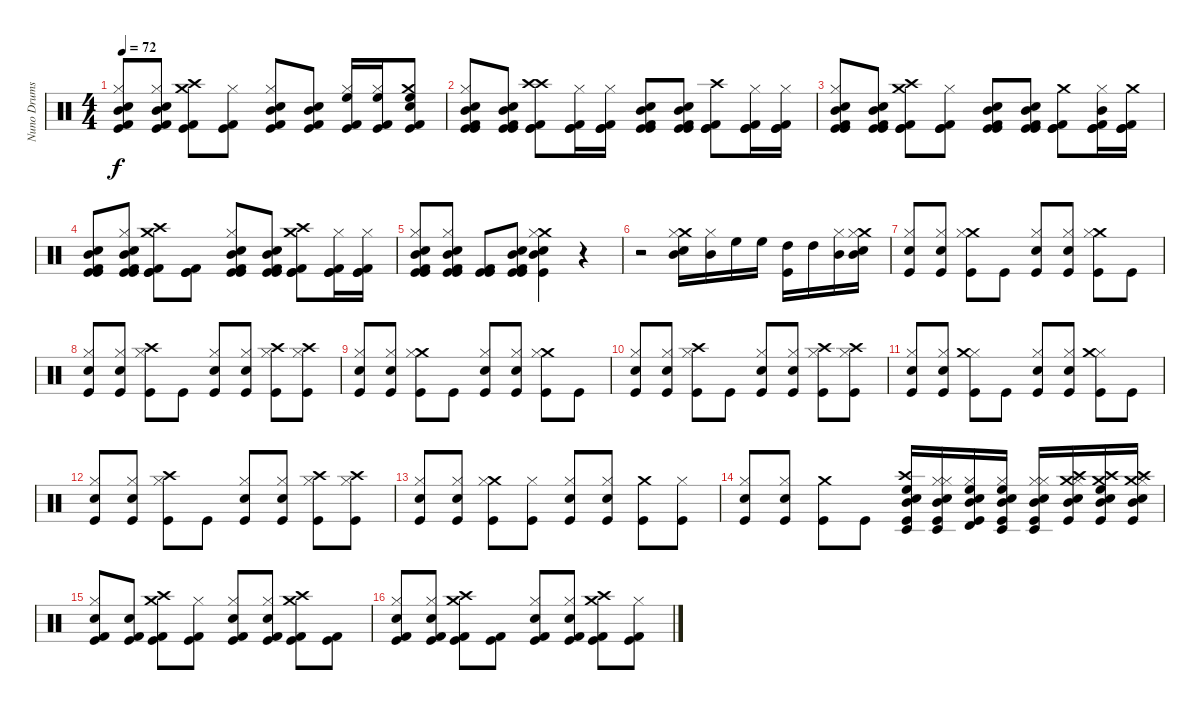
\track ("Nuno Drums" "Nuno Drums") {instrument percussion}
\staff {score}
\articulation defaults
\ts (4 4)
\tempo 72
\clef neutral
\ks c
("Kick (hit)" "Kick (hit) 2" "Hi-Hat (closed)" "Electric Snare (hit)" "Mid Tom (hit)").8{dy f} ("Kick (hit)" "Kick (hit) 2" "Hi-Hat (closed)" "Electric Snare (hit)" "Mid Tom (hit)").8 ("Kick (hit)" "Kick (hit) 2" "Crash high (hit)" "Crash medium (hit)").8 ("Kick (hit)" "Kick (hit) 2" "Hi-Hat (closed)").8 ("Kick (hit)" "Kick (hit) 2" "Hi-Hat (closed)" "Electric Snare (hit)" "Mid Tom (hit)").8 ("Kick (hit)" "Kick (hit) 2" "Electric Snare (hit)" "Mid Tom (hit)").8 ("Kick (hit)" "Kick (hit) 2" "High Floor Tom (hit)" "Hi-Hat (closed)").16 ("Kick (hit)" "Kick (hit) 2" "High Floor Tom (hit)" "Hi-Hat (closed)").16 ("Kick (hit)" "Kick (hit) 2" "High Floor Tom (hit)" "Crash medium (hit)" "Electric Snare (hit)").8 |
("Kick (hit)" "Kick (hit)" "Kick (hit) 2" "Hi-Hat (closed)" "Electric Snare (hit)" "Mid Tom (hit)").8 ("Kick (hit)" "Kick (hit)" "Kick (hit) 2" "Electric Snare (hit)" "Mid Tom (hit)").8 ("Kick (hit)" "Kick (hit)" "Kick (hit) 2" "Crash high (hit)" "Crash high (hit)").8 ("Kick (hit)" "Kick (hit)" "Kick (hit) 2" "Hi-Hat (closed)").16 ("Kick (hit)" "Kick (hit)" "Kick (hit) 2" "Hi-Hat (closed)").16 ("Kick (hit)" "Kick (hit)" "Kick (hit) 2" "Electric Snare (hit)" "Mid Tom (hit)").8 ("Kick (hit)" "Kick (hit)" "Kick (hit) 2" "Electric Snare (hit)" "Mid Tom (hit)").8 ("Kick (hit)" "Kick (hit)" "Kick (hit) 2" "Crash high (hit)").8 ("Kick (hit)" "Kick (hit)" "Kick (hit) 2" "Hi-Hat (closed)").16 ("Kick (hit)" "Kick (hit)" "Kick (hit) 2" "Hi-Hat (closed)").16 |
("Kick (hit)" "Kick (hit)" "Kick (hit) 2" "Hi-Hat (closed)" "Electric Snare (hit)" "Mid Tom (hit)").8 ("Kick (hit)" "Kick (hit)" "Kick (hit) 2" "Electric Snare (hit)" "Mid Tom (hit)").8 ("Kick (hit)" "Kick (hit)" "Kick (hit) 2" "Crash high (hit)" "Crash medium (hit)").8 ("Kick (hit)" "Kick (hit)" "Kick (hit) 2" "Hi-Hat (closed)").8 ("Kick (hit)" "Kick (hit)" "Kick (hit) 2" "Electric Snare (hit)" "Mid Tom (hit)").8 ("Kick (hit)" "Kick (hit)" "Kick (hit) 2" "Electric Snare (hit)" "Mid Tom (hit)").8 ("Kick (hit)" "Kick (hit)" "Kick (hit) 2" "Crash medium (hit)").8 ("Kick (hit)" "Kick (hit)" "Kick (hit) 2" "Hi-Hat (closed)" "Mid Tom (hit)").16 ("Kick (hit)" "Kick (hit)" "Kick (hit) 2" "Crash medium (hit)").16 |
("Kick (hit)" "Kick (hit)" "Kick (hit) 2" "Electric Snare (hit)" "Mid Tom (hit)").8 ("Kick (hit)" "Kick (hit)" "Kick (hit) 2" "Hi-Hat (closed)" "Electric Snare (hit)" "Mid Tom (hit)").8 ("Kick (hit)" "Kick (hit)" "Kick (hit) 2" "Crash high (hit)" "Crash medium (hit)").8 ("Kick (hit)" "Kick (hit)" "Kick (hit) 2").8 ("Kick (hit)" "Kick (hit)" "Kick (hit) 2" "Hi-Hat (closed)" "Electric Snare (hit)" "Mid Tom (hit)").8 ("Kick (hit)" "Kick (hit)" "Kick (hit) 2" "Electric Snare (hit)" "Mid Tom (hit)").8 ("Kick (hit)" "Kick (hit)" "Kick (hit) 2" "Crash medium (hit)" "Crash high (hit)").8 ("Kick (hit)" "Kick (hit)" "Kick (hit) 2" "Hi-Hat (closed)").16 ("Kick (hit)" "Kick (hit)" "Kick (hit) 2" "Hi-Hat (closed)").16 |
("Kick (hit)" "Kick (hit) 2" "Kick (hit)" "Hi-Hat (closed)" "Electric Snare (hit)" "Mid Tom (hit)").8 ("Kick (hit)" "Kick (hit) 2" "Kick (hit)" "Hi-Hat (closed)" "Electric Snare (hit)" "Mid Tom (hit)").8 ("Kick (hit)" "Kick (hit) 2" "Kick (hit)").8 ("Kick (hit)" "Kick (hit) 2" "Kick (hit)" "Electric Snare (hit)" "Mid Tom (hit)").8 ("Kick (hit)" "Crash medium (hit)" "Hi-Hat (closed)" "Electric Snare (hit)" "Mid Tom (hit)").4 r.4 |
r.2 ("Mid Tom (hit)" "Crash medium (hit)" "Electric Snare (hit)" "Hi-Hat (closed)").16 ("Mid Tom (hit)" "Hi-Hat (closed)").16 "High Floor Tom (hit)".16 "High Floor Tom (hit)".16 ("High Tom (hit)" "Kick (hit)").16 "High Tom (hit)".16 ("Mid Tom (hit)" "Hi-Hat (closed)").16 ("Mid Tom (hit)" "Crash medium (hit)" "Electric Snare (hit)" "Hi-Hat (closed)").16 |
("Kick (hit)" "Electric Snare (hit)" "Hi-Hat (closed)").8 ("Kick (hit)" "Electric Snare (hit)" "Hi-Hat (closed)").8 ("Kick (hit)" "Crash medium (hit)" "Hi-Hat (closed)").8 "Kick (hit)".8 ("Kick (hit)" "Electric Snare (hit)" "Hi-Hat (closed)").8 ("Kick (hit)" "Electric Snare (hit)" "Hi-Hat (closed)").8 ("Kick (hit)" "Crash medium (hit)" "Hi-Hat (closed)").8 "Kick (hit)".8 |
("Kick (hit)" "Electric Snare (hit)" "Hi-Hat (closed)").8 ("Kick (hit)" "Electric Snare (hit)" "Hi-Hat (closed)").8 ("Kick (hit)" "Crash high (hit)" "Hi-Hat (closed)").8 "Kick (hit)".8 ("Kick (hit)" "Electric Snare (hit)" "Hi-Hat (closed)").8 ("Kick (hit)" "Electric Snare (hit)" "Hi-Hat (closed)").8 ("Kick (hit)" "Crash high (hit)" "Hi-Hat (closed)").8 ("Kick (hit)" "Crash high (hit)" "Hi-Hat (closed)").8 |
("Kick (hit)" "Electric Snare (hit)" "Hi-Hat (closed)").8 ("Kick (hit)" "Electric Snare (hit)" "Hi-Hat (closed)").8 ("Kick (hit)" "Crash medium (hit)" "Hi-Hat (closed)").8 "Kick (hit)".8 ("Kick (hit)" "Electric Snare (hit)" "Hi-Hat (closed)").8 ("Kick (hit)" "Electric Snare (hit)" "Hi-Hat (closed)").8 ("Kick (hit)" "Crash medium (hit)" "Hi-Hat (closed)").8 "Kick (hit)".8 |
("Kick (hit)" "Electric Snare (hit)" "Hi-Hat (closed)").8 ("Kick (hit)" "Electric Snare (hit)" "Hi-Hat (closed)").8 ("Kick (hit)" "Crash high (hit)" "Hi-Hat (closed)").8 "Kick (hit)".8 ("Kick (hit)" "Electric Snare (hit)" "Hi-Hat (closed)").8 ("Kick (hit)" "Electric Snare (hit)" "Hi-Hat (closed)").8 ("Kick (hit)" "Crash high (hit)" "Hi-Hat (closed)").8 ("Kick (hit)" "Crash high (hit)" "Hi-Hat (closed)").8 |
("Kick (hit)" "Electric Snare (hit)" "Hi-Hat (closed)").8 ("Kick (hit)" "Electric Snare (hit)" "Hi-Hat (closed)").8 ("Kick (hit)" "Hi-Hat (closed)" "Crash medium (hit)").8 "Kick (hit)".8 ("Kick (hit)" "Electric Snare (hit)" "Hi-Hat (closed)").8 ("Kick (hit)" "Electric Snare (hit)" "Hi-Hat (closed)").8 ("Kick (hit)" "Hi-Hat (closed)" "Crash medium (hit)").8 "Kick (hit)".8 |
("Kick (hit)" "Electric Snare (hit)" "Hi-Hat (closed)").8 ("Kick (hit)" "Electric Snare (hit)" "Hi-Hat (closed)").8 ("Kick (hit)" "Crash high (hit)" "Hi-Hat (closed)").8 "Kick (hit)".8 ("Kick (hit)" "Electric Snare (hit)" "Hi-Hat (closed)").8 ("Kick (hit)" "Electric Snare (hit)" "Hi-Hat (closed)").8 ("Kick (hit)" "Crash high (hit)" "Hi-Hat (closed)").8 ("Kick (hit)" "Crash high (hit)" "Hi-Hat (closed)").8 |
("Kick (hit)" "Electric Snare (hit)" "Hi-Hat (closed)").8 ("Kick (hit)" "Electric Snare (hit)" "Hi-Hat (closed)").8 ("Kick (hit)" "Crash medium (hit)" "Hi-Hat (closed)").8 ("Kick (hit)" "Hi-Hat (closed)").8 ("Kick (hit)" "Hi-Hat (closed)" "Electric Snare (hit)").8 ("Kick (hit)" "Hi-Hat (closed)" "Electric Snare (hit)").8 ("Kick (hit)" "Crash medium (hit)").8 ("Kick (hit)" "Hi-Hat (closed)").8 |
("Kick (hit)" "Hi-Hat (closed)" "Electric Snare (hit)").8 ("Kick (hit)" "Hi-Hat (closed)" "Electric Snare (hit)").8 ("Kick (hit)" "Crash medium (hit)").8 "Kick (hit)".8 ("High Floor Tom (hit)" "Mid Tom (hit)" "Kick (hit)" "Crash high (hit)" "Timbale low (hit)" "Electric Snare (hit)").16 ("Hi-Hat (closed)" "Mid Tom (hit)" "Kick (hit)" "Hi-Hat (closed)" "Timbale low (hit)" "Electric Snare (hit)").16 ("High Floor Tom (hit)" "Mid Tom (hit)" "Kick (hit)" "Hi-Hat (closed)" "Timbale high (hit)" "Electric Snare (hit)").16 ("High Floor Tom (hit)" "Mid Tom (hit)" "Kick (hit)" "Hi-Hat (closed)" "Timbale low (hit)" "Electric Snare (hit)").16 ("Hi-Hat (closed)" "Mid Tom (hit)" "Kick (hit)" "Hi-Hat (closed)" "Timbale low (hit)" "Electric Snare (hit)").16 ("Electric Snare (hit)" "Mid Tom (hit)" "Kick (hit)" "Crash medium (hit)" "Hi-Hat (closed)" "Crash high (hit)").16 ("Electric Snare (hit)" "Mid Tom (hit)" "Kick (hit)" "Crash medium (hit)" "High Floor Tom (hit)" "Crash high (hit)").16 ("Electric Snare (hit)" "Mid Tom (hit)" "Kick (hit)" "Crash medium (hit)" "Hi-Hat (closed)" "Crash high (hit)").16 |
("Kick (hit)" "Kick (hit) 2" "Hi-Hat (closed)" "Electric Snare (hit)").8 ("Kick (hit)" "Kick (hit) 2" "Electric Snare (hit)").8 ("Kick (hit)" "Kick (hit) 2" "Crash medium (hit)" "Crash high (hit)").8 ("Kick (hit)" "Kick (hit) 2" "Hi-Hat (closed)").8 ("Kick (hit)" "Kick (hit) 2" "Hi-Hat (closed)" "Electric Snare (hit)").8 ("Kick (hit)" "Kick (hit) 2" "Hi-Hat (closed)" "Electric Snare (hit)").8 ("Kick (hit)" "Kick (hit) 2" "Crash medium (hit)" "Crash high (hit)").8 ("Kick (hit)" "Kick (hit) 2").8 |
("Kick (hit)" "Kick (hit) 2" "Hi-Hat (closed)" "Electric Snare (hit)").8 ("Kick (hit)" "Kick (hit) 2" "Hi-Hat (closed)" "Electric Snare (hit)").8 ("Kick (hit)" "Kick (hit) 2" "Crash medium (hit)" "Crash high (hit)").8 ("Kick (hit)" "Kick (hit) 2").8 ("Kick (hit)" "Kick (hit) 2" "Hi-Hat (closed)" "Electric Snare (hit)").8 ("Kick (hit)" "Kick (hit) 2" "Hi-Hat (closed)" "Electric Snare (hit)").8 ("Kick (hit)" "Kick (hit) 2" "Crash medium (hit)" "Crash high (hit)").8 ("Kick (hit)" "Kick (hit) 2" "Hi-Hat (closed)").8
